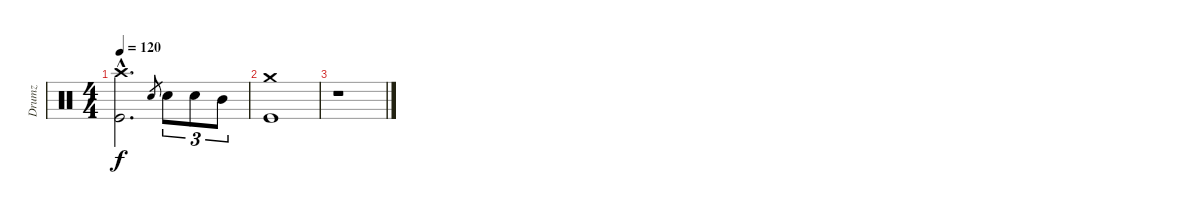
\track ("Drumz" "Drumz") {instrument percussion}
\staff {score}
\articulation defaults
\ts (4 4)
\tempo 120
\clef neutral
\ks c
("Crash high (hit)"{hac} "Kick (hit)"{hac}).2{d dy f} "Electric Snare (hit)".8{gr} "Electric Snare (hit)".8{tu (3 2)} "Electric Snare (hit)".8{tu (3 2)} "Mid Tom (hit)".8{tu (3 2)} |
("Crash medium (hit)" "Kick (hit)").1 |
r.1
